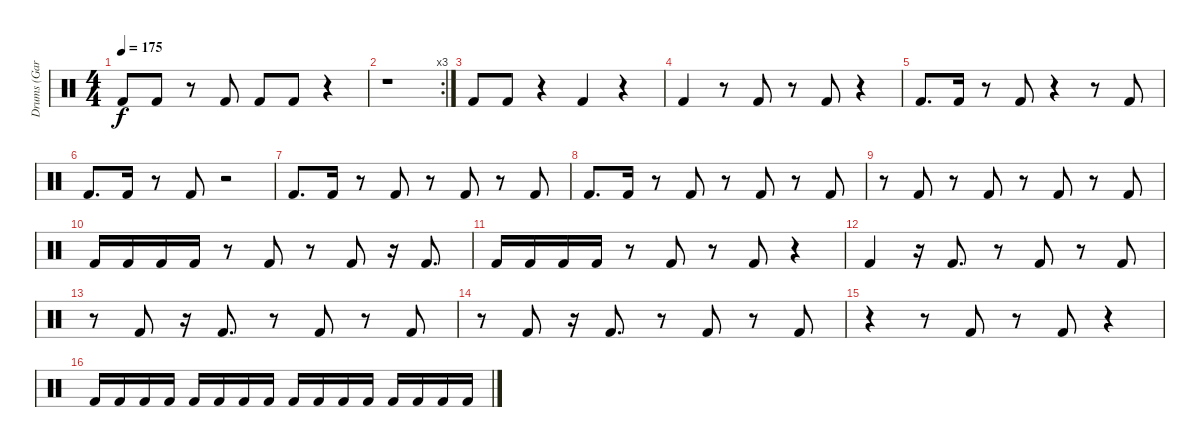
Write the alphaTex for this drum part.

\track ("Drums (Gar Samuelson)" "Drums (Gar") {instrument percussion}
\staff {score}
\articulation defaults
\ts (4 4)
\tempo 175
\clef neutral
\ks c "Kick (hit) 2".8{dy f} "Kick (hit) 2".8
r.8 "Kick (hit) 2".8 "Kick (hit) 2".8 "Kick (hit) 2".8 r.4 |
\rc 3
r.1 |
"Kick (hit) 2".8 "Kick (hit) 2".8 r.4 "Kick (hit) 2".4 r.4 |
"Kick (hit) 2".4 r.8 "Kick (hit) 2".8 r.8 "Kick (hit) 2".8 r.4 |
"Kick (hit) 2".8{d} "Kick (hit) 2".16 r.8 "Kick (hit) 2".8 r.4 r.8 "Kick (hit) 2".8 |
"Kick (hit) 2".8{d} "Kick (hit) 2".16 r.8 "Kick (hit) 2".8 r.2 |
"Kick (hit) 2".8{d} "Kick (hit) 2".16 r.8 "Kick (hit) 2".8 r.8 "Kick (hit) 2".8 r.8 "Kick (hit) 2".8 |
"Kick (hit) 2".8{d} "Kick (hit) 2".16 r.8 "Kick (hit) 2".8 r.8 "Kick (hit) 2".8 r.8 "Kick (hit) 2".8 |
r.8 "Kick (hit) 2".8 r.8 "Kick (hit) 2".8 r.8 "Kick (hit) 2".8 r.8 "Kick (hit) 2".8 |
"Kick (hit) 2".16 "Kick (hit) 2".16 "Kick (hit) 2".16 "Kick (hit) 2".16 r.8 "Kick (hit) 2".8 r.8 "Kick (hit) 2".8 r.16 "Kick (hit) 2".8{d} |
"Kick (hit) 2".16 "Kick (hit) 2".16 "Kick (hit) 2".16 "Kick (hit) 2".16 r.8 "Kick (hit) 2".8 r.8 "Kick (hit) 2".8 r.4 |
"Kick (hit) 2".4 r.16 "Kick (hit) 2".8{d} r.8 "Kick (hit) 2".8 r.8 "Kick (hit) 2".8 |
r.8 "Kick (hit) 2".8 r.16 "Kick (hit) 2".8{d} r.8 "Kick (hit) 2".8 r.8 "Kick (hit) 2".8 |
r.8 "Kick (hit) 2".8 r.16 "Kick (hit) 2".8{d} r.8 "Kick (hit) 2".8 r.8 "Kick (hit) 2".8 |
r.4 r.8 "Kick (hit) 2".8 r.8 "Kick (hit) 2".8 r.4 |
"Kick (hit) 2".16 "Kick (hit) 2".16 "Kick (hit) 2".16 "Kick (hit) 2".16 "Kick (hit) 2".16 "Kick (hit) 2".16 "Kick (hit) 2".16 "Kick (hit) 2".16 "Kick (hit) 2".16 "Kick (hit) 2".16 "Kick (hit) 2".16 "Kick (hit) 2".16 "Kick (hit) 2".16 "Kick (hit) 2".16 "Kick (hit) 2".16 "Kick (hit) 2".16
